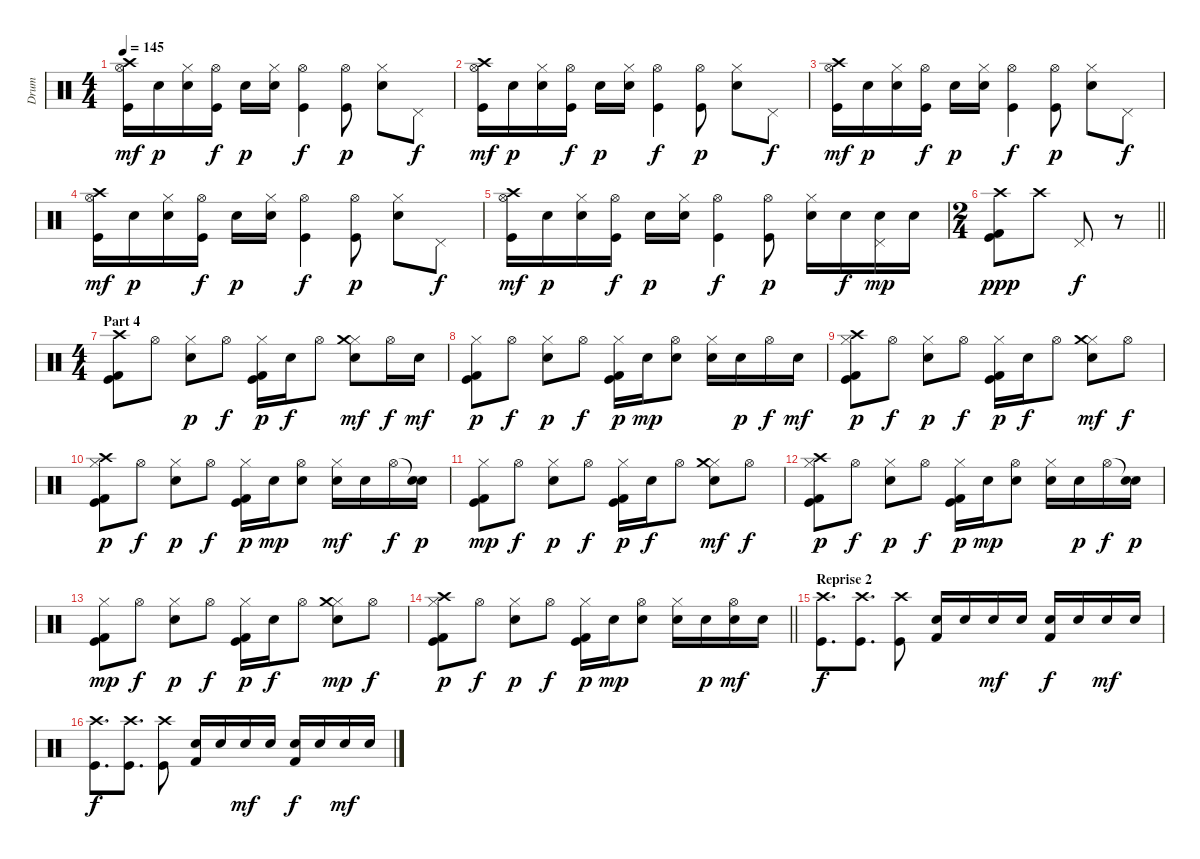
\track ("Drum" "Drum") {instrument percussion}
\staff {score}
\articulation defaults
\ts (4 4)
\tempo 145
\clef neutral
\ks c
("Hi-Hat (open)" "Crash high (hit)" "Kick (hit)").16{dy mf} "Electric Snare (hit)".16{dy p} ("Hi-Hat (closed)" "Electric Snare (hit)").16 ("Hi-Hat (open)" "Kick (hit)").16{dy f} "Electric Snare (hit)".16{dy p} ("Hi-Hat (closed)" "Electric Snare (hit)").16 ("Hi-Hat (open)" "Kick (hit)").4{dy f} ("Hi-Hat (open)" "Kick (hit)").8{dy p} ("Hi-Hat (closed)" "Electric Snare (hit)").8 "Pedal Hi-Hat (hit)".8{dy f} |
("Hi-Hat (open)" "Crash high (hit)" "Kick (hit)").16{dy mf} "Electric Snare (hit)".16{dy p} ("Hi-Hat (closed)" "Electric Snare (hit)").16 ("Hi-Hat (open)" "Kick (hit)").16{dy f} "Electric Snare (hit)".16{dy p} ("Hi-Hat (closed)" "Electric Snare (hit)").16 ("Hi-Hat (open)" "Kick (hit)").4{dy f} ("Hi-Hat (open)" "Kick (hit)").8{dy p} ("Hi-Hat (closed)" "Electric Snare (hit)").8 "Pedal Hi-Hat (hit)".8{dy f} |
("Hi-Hat (open)" "Crash high (hit)" "Kick (hit)").16{dy mf} "Electric Snare (hit)".16{dy p} ("Hi-Hat (closed)" "Electric Snare (hit)").16 ("Hi-Hat (open)" "Kick (hit)").16{dy f} "Electric Snare (hit)".16{dy p} ("Hi-Hat (closed)" "Electric Snare (hit)").16 ("Hi-Hat (open)" "Kick (hit)").4{dy f} ("Hi-Hat (open)" "Kick (hit)").8{dy p} ("Hi-Hat (closed)" "Electric Snare (hit)").8 "Pedal Hi-Hat (hit)".8{dy f} |
("Hi-Hat (open)" "Crash high (hit)" "Kick (hit)").16{dy mf} "Electric Snare (hit)".16{dy p} ("Hi-Hat (closed)" "Electric Snare (hit)").16 ("Hi-Hat (open)" "Kick (hit)").16{dy f} "Electric Snare (hit)".16{dy p} ("Hi-Hat (closed)" "Electric Snare (hit)").16 ("Hi-Hat (open)" "Kick (hit)").4{dy f} ("Hi-Hat (open)" "Kick (hit)").8{dy p} ("Hi-Hat (closed)" "Electric Snare (hit)").8 "Pedal Hi-Hat (hit)".8{dy f} |
("Hi-Hat (open)" "Crash high (hit)" "Kick (hit)").16{dy mf} "Electric Snare (hit)".16{dy p} ("Hi-Hat (closed)" "Electric Snare (hit)").16 ("Hi-Hat (open)" "Kick (hit)").16{dy f} "Electric Snare (hit)".16{dy p} ("Hi-Hat (closed)" "Electric Snare (hit)").16 ("Hi-Hat (open)" "Kick (hit)").4{dy f} ("Hi-Hat (open)" "Kick (hit)").8{dy p} ("Hi-Hat (closed)" "Electric Snare (hit)").16 "Electric Snare (hit)".16{dy f} ("Pedal Hi-Hat (hit)" "Electric Snare (hit)").16{dy mp} "Electric Snare (hit)".16 |
\ts (2 4)
\barLineRight lightlight
("Crash high (hit)" "Kick (hit) 2" "Kick (hit)").8{dy ppp} "Crash high (hit)".8 "Pedal Hi-Hat (hit)".8{dy f} r.8 |
\ts (4 4)
\section ("" "Part 4")
("Crash high (hit)" "Kick (hit) 2" "Kick (hit)").8 "Hi-Hat (open)".8 ("Hi-Hat (closed)" "Electric Snare (hit)").8{dy p} "Hi-Hat (open)".8{dy f} ("Hi-Hat (closed)" "Kick (hit) 2" "Kick (hit)").16{dy p} "Electric Snare (hit)".16{dy f} "Hi-Hat (open)".8 ("Hi-Hat (closed)" "Crash medium (hit)" "Electric Snare (hit)").8{dy mf} "Hi-Hat (open)".16{dy f} "Electric Snare (hit)".16{dy mf} |
("Hi-Hat (closed)" "Kick (hit) 2" "Kick (hit)").8{dy p} "Hi-Hat (open)".8{dy f} ("Hi-Hat (closed)" "Electric Snare (hit)").8{dy p} "Hi-Hat (open)".8{dy f} ("Hi-Hat (closed)" "Kick (hit) 2" "Kick (hit)").16{dy p} "Electric Snare (hit)".16{dy mp} ("Hi-Hat (open)" "Electric Snare (hit)").8 ("Hi-Hat (closed)" "Electric Snare (hit)").16 "Electric Snare (hit)".16{dy p} "Hi-Hat (open)".16{dy f} "Electric Snare (hit)".16{dy mf} |
("Hi-Hat (closed)" "Crash high (hit)" "Kick (hit) 2" "Kick (hit)").8{dy p} "Hi-Hat (open)".8{dy f} ("Hi-Hat (closed)" "Electric Snare (hit)").8{dy p} "Hi-Hat (open)".8{dy f} ("Hi-Hat (closed)" "Kick (hit) 2" "Kick (hit)").16{dy p} "Electric Snare (hit)".16{dy f} "Hi-Hat (open)".8 ("Hi-Hat (closed)" "Crash medium (hit)" "Electric Snare (hit)").8{dy mf} "Hi-Hat (open)".8{dy f} |
("Hi-Hat (closed)" "Crash high (hit)" "Kick (hit) 2" "Kick (hit)").8{dy p} "Hi-Hat (open)".8{dy f} ("Hi-Hat (closed)" "Electric Snare (hit)").8{dy p} "Hi-Hat (open)".8{dy f} ("Hi-Hat (closed)" "Kick (hit) 2" "Kick (hit)").16{dy p} "Electric Snare (hit)".16{dy mp} ("Hi-Hat (open)" "Electric Snare (hit)").8 ("Hi-Hat (closed)" "Electric Snare (hit)").16{dy mf} "Electric Snare (hit)".16 "Hi-Hat (open)".16{dy f} ("Snare (hit)"{t} "Electric Snare (hit)").16{dy p} |
("Hi-Hat (closed)" "Kick (hit) 2" "Kick (hit)").8{dy mp} "Hi-Hat (open)".8{dy f} ("Hi-Hat (closed)" "Electric Snare (hit)").8{dy p} "Hi-Hat (open)".8{dy f} ("Hi-Hat (closed)" "Kick (hit) 2" "Kick (hit)").16{dy p} "Electric Snare (hit)".16{dy f} "Hi-Hat (open)".8 ("Hi-Hat (closed)" "Crash medium (hit)" "Electric Snare (hit)").8{dy mf} "Hi-Hat (open)".8{dy f} |
("Hi-Hat (closed)" "Crash high (hit)" "Kick (hit) 2" "Kick (hit)").8{dy p} "Hi-Hat (open)".8{dy f} ("Hi-Hat (closed)" "Electric Snare (hit)").8{dy p} "Hi-Hat (open)".8{dy f} ("Hi-Hat (closed)" "Kick (hit) 2" "Kick (hit)").16{dy p} "Electric Snare (hit)".16{dy mp} ("Hi-Hat (open)" "Electric Snare (hit)").8 ("Hi-Hat (closed)" "Electric Snare (hit)").16 "Electric Snare (hit)".16{dy p} "Hi-Hat (open)".16{dy f} ("Snare (hit)"{t} "Electric Snare (hit)").16{dy p} |
("Hi-Hat (closed)" "Kick (hit) 2" "Kick (hit)").8{dy mp} "Hi-Hat (open)".8{dy f} ("Hi-Hat (closed)" "Electric Snare (hit)").8{dy p} "Hi-Hat (open)".8{dy f} ("Hi-Hat (closed)" "Kick (hit) 2" "Kick (hit)").16{dy p} "Electric Snare (hit)".16{dy f} "Hi-Hat (open)".8 ("Hi-Hat (closed)" "Crash medium (hit)" "Electric Snare (hit)").8{dy mp} "Hi-Hat (open)".8{dy f} |
\barLineRight lightlight
("Hi-Hat (closed)" "Crash high (hit)" "Kick (hit) 2" "Kick (hit)").8{dy p} "Hi-Hat (open)".8{dy f} ("Hi-Hat (closed)" "Electric Snare (hit)").8{dy p} "Hi-Hat (open)".8{dy f} ("Hi-Hat (closed)" "Kick (hit) 2" "Kick (hit)").16{dy p} "Electric Snare (hit)".16{dy mp} ("Hi-Hat (open)" "Electric Snare (hit)").8 ("Hi-Hat (closed)" "Electric Snare (hit)").16 "Electric Snare (hit)".16{dy p} ("Hi-Hat (open)" "Snare (hit) 2").16{dy mf} "Snare (hit) 2".16 |
\section ("" "Reprise 2")
("Crash high (hit)" "Kick (hit)").8{d dy f} ("Crash high (hit)" "Kick (hit)").8{d} ("Crash high (hit)" "Kick (hit)").8 ("Electric Snare (hit)" "Kick (hit) 2").16 "Electric Snare (hit)".16 "Electric Snare (hit)".16{dy mf} "Electric Snare (hit)".16 ("Electric Snare (hit)" "Kick (hit) 2").16{dy f} "Electric Snare (hit)".16 "Electric Snare (hit)".16{dy mf} "Electric Snare (hit)".16 |
("Crash high (hit)" "Kick (hit)").8{d dy f} ("Crash high (hit)" "Kick (hit)").8{d} ("Crash high (hit)" "Kick (hit)").8 ("Electric Snare (hit)" "Kick (hit) 2").16 "Electric Snare (hit)".16 "Electric Snare (hit)".16{dy mf} "Electric Snare (hit)".16 ("Electric Snare (hit)" "Kick (hit) 2").16{dy f} "Electric Snare (hit)".16 "Electric Snare (hit)".16{dy mf} "Electric Snare (hit)".16
